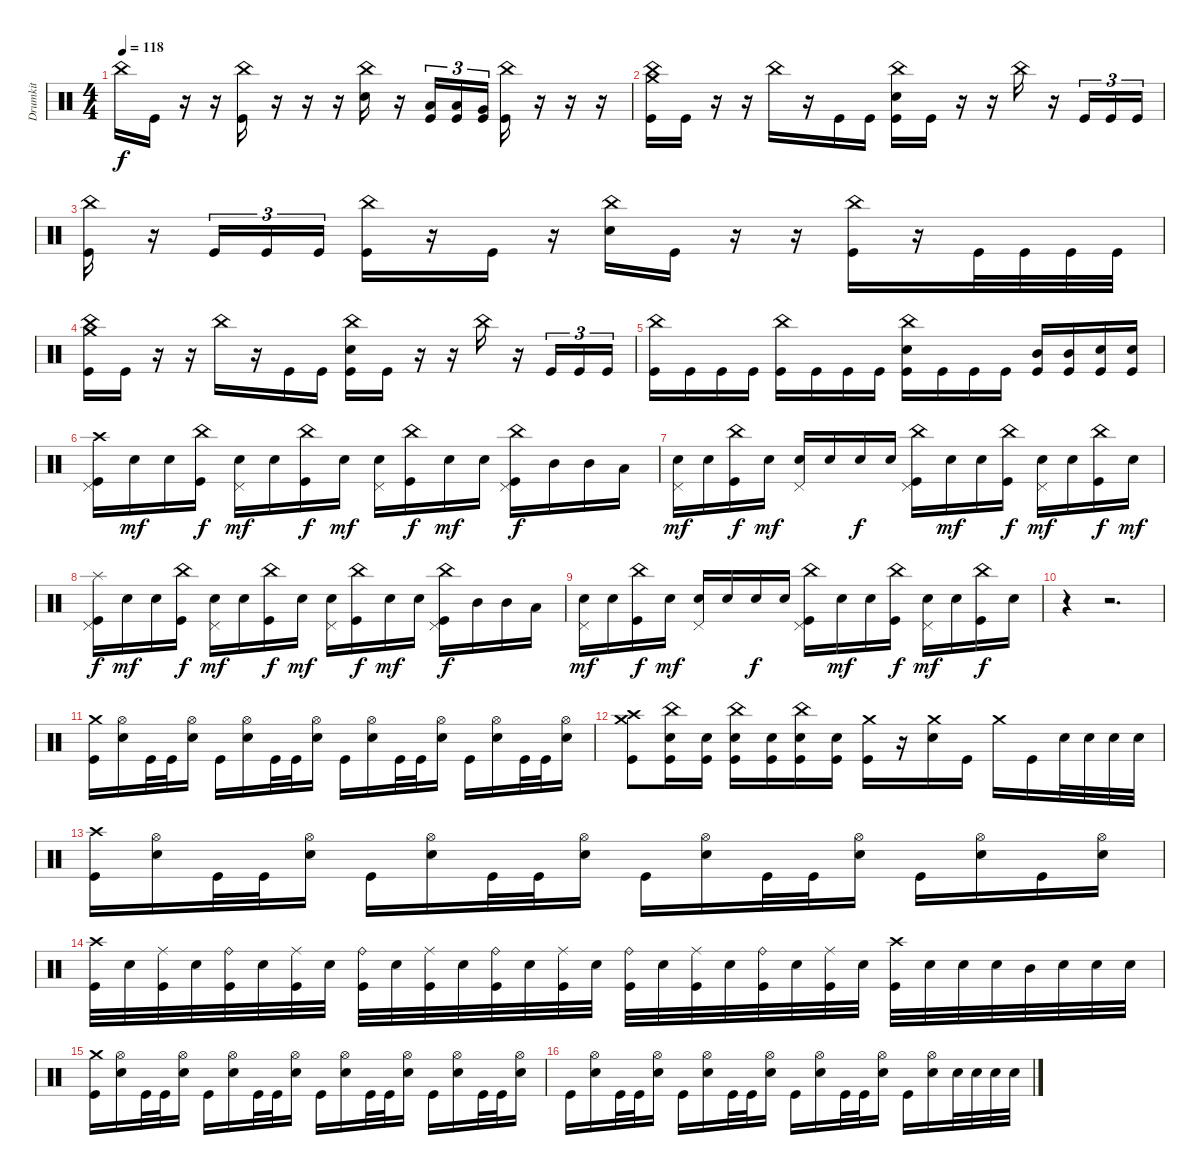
\track ("Drumkit" "Drumkit") {instrument percussion}
\staff {score}
\articulation defaults
\ts (4 4)
\tempo 118
\clef neutral
\ks c "China (hit)".16{dy f} "Kick (hit)".16
r.16 r.16 ("China (hit)" "Kick (hit)").16 r.16 r.16 r.16 ("China (hit)" "Snare (hit) 2").16 r.16 ("Low Tom (hit)" "Kick (hit)").16{tu (3 2)} ("Low Tom (hit)" "Kick (hit)").16{tu (3 2)} ("Very Low Tom (hit)" "Kick (hit)").16{tu (3 2)} ("China (hit)" "Kick (hit)").16 r.16 r.16 r.16 |
("Kick (hit)" "China (hit)" "Crash medium (hit)").16 "Kick (hit)".16 r.16 r.16 "China (hit)".16 r.16 "Kick (hit)".16 "Kick (hit)".16 ("Kick (hit)" "China (hit)" "Snare (hit) 2").16 "Kick (hit)".16 r.16 r.16 "China (hit)".16 r.16 "Kick (hit)".16{tu (3 2)} "Kick (hit)".16{tu (3 2)} "Kick (hit)".16{tu (3 2)} |
("Kick (hit)" "China (hit)").16 r.16 "Kick (hit)".16{tu (3 2)} "Kick (hit)".16{tu (3 2)} "Kick (hit)".16{tu (3 2)} ("Kick (hit)" "China (hit)").16 r.16 "Kick (hit)".16 r.16 ("China (hit)" "Snare (hit) 2").16 "Kick (hit)".16 r.16 r.16 ("China (hit)" "Kick (hit)").16 r.16 "Kick (hit)".32 "Kick (hit)".32 "Kick (hit)".32 "Kick (hit)".32 |
("Kick (hit)" "China (hit)" "Crash medium (hit)").16 "Kick (hit)".16 r.16 r.16 "China (hit)".16 r.16 "Kick (hit)".16 "Kick (hit)".16 ("Kick (hit)" "China (hit)" "Snare (hit) 2").16 "Kick (hit)".16 r.16 r.16 "China (hit)".16 r.16 "Kick (hit)".16{tu (3 2)} "Kick (hit)".16{tu (3 2)} "Kick (hit)".16{tu (3 2)} |
("Kick (hit)" "China (hit)").16 "Kick (hit)".16 "Kick (hit)".16 "Kick (hit)".16 ("Kick (hit)" "China (hit)").16 "Kick (hit)".16 "Kick (hit)".16 "Kick (hit)".16 ("Kick (hit)" "China (hit)" "Snare (hit) 2").16 "Kick (hit)".16 "Kick (hit)".16 "Kick (hit)".16 ("Kick (hit)" "Mid Tom (hit)").16 ("Kick (hit)" "Mid Tom (hit)").16 ("Kick (hit)" "Snare (hit) 2").16 ("Kick (hit)" "Snare (hit) 2").16 |
("Crash high (hit)" "Pedal Hi-Hat (hit)" "Kick (hit)").16 "Snare (hit) 2".16{dy mf} "Snare (hit) 2".16 ("China (hit)" "Kick (hit)").16{dy f} ("Pedal Hi-Hat (hit)" "Snare (hit) 2").16{dy mf} "Snare (hit) 2".16 ("China (hit)" "Kick (hit)").16{dy f} "Snare (hit) 2".16{dy mf} ("Pedal Hi-Hat (hit)" "Snare (hit) 2").16 ("China (hit)" "Kick (hit)").16{dy f} "Snare (hit) 2".16{dy mf} "Snare (hit) 2".16 ("China (hit)" "Pedal Hi-Hat (hit)" "Kick (hit)").16{dy f} "Mid Tom (hit)".16 "Mid Tom (hit)".16 "Low Tom (hit)".16 |
("Snare (hit) 2" "Pedal Hi-Hat (hit)").16{dy mf} "Snare (hit) 2".16 ("Kick (hit)" "China (hit)").16{dy f} "Snare (hit) 2".16{dy mf} ("Snare (hit) 2" "Pedal Hi-Hat (hit)").16 "Snare (hit) 2".16 "Snare (hit) 2".16{dy f} "Snare (hit) 2".16 ("Kick (hit)" "China (hit)" "Pedal Hi-Hat (hit)").16 "Snare (hit) 2".16{dy mf} "Snare (hit) 2".16 ("Kick (hit)" "China (hit)").16{dy f} ("Snare (hit) 2" "Pedal Hi-Hat (hit)").16{dy mf} "Snare (hit) 2".16 ("Kick (hit)" "China (hit)").16{dy f} "Snare (hit) 2".16{dy mf} |
("Kick (hit)" "Splash (hit)" "Pedal Hi-Hat (hit)").16{dy f} "Snare (hit) 2".16{dy mf} "Snare (hit) 2".16 ("China (hit)" "Kick (hit)").16{dy f} ("Pedal Hi-Hat (hit)" "Snare (hit) 2").16{dy mf} "Snare (hit) 2".16 ("China (hit)" "Kick (hit)").16{dy f} "Snare (hit) 2".16{dy mf} ("Pedal Hi-Hat (hit)" "Snare (hit) 2").16 ("China (hit)" "Kick (hit)").16{dy f} "Snare (hit) 2".16{dy mf} "Snare (hit) 2".16 ("China (hit)" "Pedal Hi-Hat (hit)" "Kick (hit)").16{dy f} "Mid Tom (hit)".16 "Mid Tom (hit)".16 "Low Tom (hit)".16 |
("Snare (hit) 2" "Pedal Hi-Hat (hit)").16{dy mf} "Snare (hit) 2".16 ("Kick (hit)" "China (hit)").16{dy f} "Snare (hit) 2".16{dy mf} ("Snare (hit) 2" "Pedal Hi-Hat (hit)").16 "Snare (hit) 2".16 "Snare (hit) 2".16{dy f} "Snare (hit) 2".16 ("Kick (hit)" "China (hit)" "Pedal Hi-Hat (hit)").16 "Snare (hit) 2".16{dy mf} "Snare (hit) 2".16 ("Kick (hit)" "China (hit)").16{dy f} ("Snare (hit) 2" "Pedal Hi-Hat (hit)").16{dy mf} "Snare (hit) 2".16 ("Kick (hit)" "China (hit)").16{dy f} "Snare (hit) 2".16 |
r.4 r.2{d} |
("Kick (hit)" "Crash medium (hit)").16 ("Snare (hit) 2" "Hi-Hat (open)").16 "Kick (hit)".32 "Kick (hit)".32 ("Snare (hit) 2" "Hi-Hat (open)").16 "Kick (hit)".16 ("Snare (hit) 2" "Hi-Hat (open)").16 "Kick (hit)".32 "Kick (hit)".32 ("Snare (hit) 2" "Hi-Hat (open)").16 "Kick (hit)".16 ("Snare (hit) 2" "Hi-Hat (open)").16 "Kick (hit)".32 "Kick (hit)".32 ("Snare (hit) 2" "Hi-Hat (open)").16 "Kick (hit)".16 ("Snare (hit) 2" "Hi-Hat (open)").16 "Kick (hit)".32 "Kick (hit)".32 ("Snare (hit) 2" "Hi-Hat (open)").16 |
("Kick (hit)" "Crash high (hit)" "Crash medium (hit)").8 ("Kick (hit)" "Snare (hit) 2" "China (hit)").16 ("Kick (hit)" "Snare (hit) 2").16 ("Kick (hit)" "Snare (hit) 2" "China (hit)").16 ("Kick (hit)" "Snare (hit) 2").16 ("Kick (hit)" "Snare (hit) 2" "China (hit)").16 ("Kick (hit)" "Snare (hit) 2").16 ("Kick (hit)" "Crash medium (hit)").16 r.16 ("Snare (hit) 2" "Crash medium (hit)").16 "Kick (hit)".16 "Crash medium (hit)".16 "Kick (hit)".16 "Snare (hit) 2".32 "Snare (hit) 2".32 "Snare (hit) 2".32 "Snare (hit) 2".32 |
("Kick (hit)" "Crash high (hit)").16 ("Snare (hit) 2" "Hi-Hat (open)").16 "Kick (hit)".32 "Kick (hit)".32 ("Snare (hit) 2" "Hi-Hat (open)").16 "Kick (hit)".16 ("Snare (hit) 2" "Hi-Hat (open)").16 "Kick (hit)".32 "Kick (hit)".32 ("Snare (hit) 2" "Hi-Hat (open)").16 "Kick (hit)".16 ("Snare (hit) 2" "Hi-Hat (open)").16 "Kick (hit)".32 "Kick (hit)".32 ("Snare (hit) 2" "Hi-Hat (open)").16 "Kick (hit)".16 ("Snare (hit) 2" "Hi-Hat (open)").16 "Kick (hit)".16 ("Snare (hit) 2" "Hi-Hat (open)").16 |
("Crash high (hit)" "Kick (hit)").32 "Snare (hit) 2".32 ("Ride (middle)" "Kick (hit)").32 "Snare (hit) 2".32 ("Ride (bell)" "Kick (hit)").32 "Snare (hit) 2".32 ("Ride (middle)" "Kick (hit)").32 "Snare (hit) 2".32 ("Ride (bell)" "Kick (hit)").32 "Snare (hit) 2".32 ("Ride (middle)" "Kick (hit)").32 "Snare (hit) 2".32 ("Ride (bell)" "Kick (hit)").32 "Snare (hit) 2".32 ("Ride (middle)" "Kick (hit)").32 "Snare (hit) 2".32 ("Ride (bell)" "Kick (hit)").32 "Snare (hit) 2".32 ("Ride (middle)" "Kick (hit)").32 "Snare (hit) 2".32 ("Ride (bell)" "Kick (hit)").32 "Snare (hit) 2".32 ("Ride (middle)" "Kick (hit)").32 "Snare (hit) 2".32 ("Crash high (hit)" "Kick (hit)").32 "Snare (hit) 2".32 "Snare (hit) 2".32 "Snare (hit) 2".32 "Mid Tom (hit)".32 "Snare (hit) 2".32 "Snare (hit) 2".32 "Snare (hit) 2".32 |
("Kick (hit)" "Crash medium (hit)").16 ("Snare (hit) 2" "Hi-Hat (open)").16 "Kick (hit)".32 "Kick (hit)".32 ("Snare (hit) 2" "Hi-Hat (open)").16 "Kick (hit)".16 ("Snare (hit) 2" "Hi-Hat (open)").16 "Kick (hit)".32 "Kick (hit)".32 ("Snare (hit) 2" "Hi-Hat (open)").16 "Kick (hit)".16 ("Snare (hit) 2" "Hi-Hat (open)").16 "Kick (hit)".32 "Kick (hit)".32 ("Snare (hit) 2" "Hi-Hat (open)").16 "Kick (hit)".16 ("Snare (hit) 2" "Hi-Hat (open)").16 "Kick (hit)".32 "Kick (hit)".32 ("Snare (hit) 2" "Hi-Hat (open)").16 |
"Kick (hit)".16 ("Snare (hit) 2" "Hi-Hat (open)").16 "Kick (hit)".32 "Kick (hit)".32 ("Snare (hit) 2" "Hi-Hat (open)").16 "Kick (hit)".16 ("Snare (hit) 2" "Hi-Hat (open)").16 "Kick (hit)".32 "Kick (hit)".32 ("Snare (hit) 2" "Hi-Hat (open)").16 "Kick (hit)".16 ("Snare (hit) 2" "Hi-Hat (open)").16 "Kick (hit)".32 "Kick (hit)".32 ("Snare (hit) 2" "Hi-Hat (open)").16 "Kick (hit)".16 ("Snare (hit) 2" "Hi-Hat (open)").16 "Snare (hit) 2".32 "Snare (hit) 2".32 "Snare (hit) 2".32 "Snare (hit) 2".32
